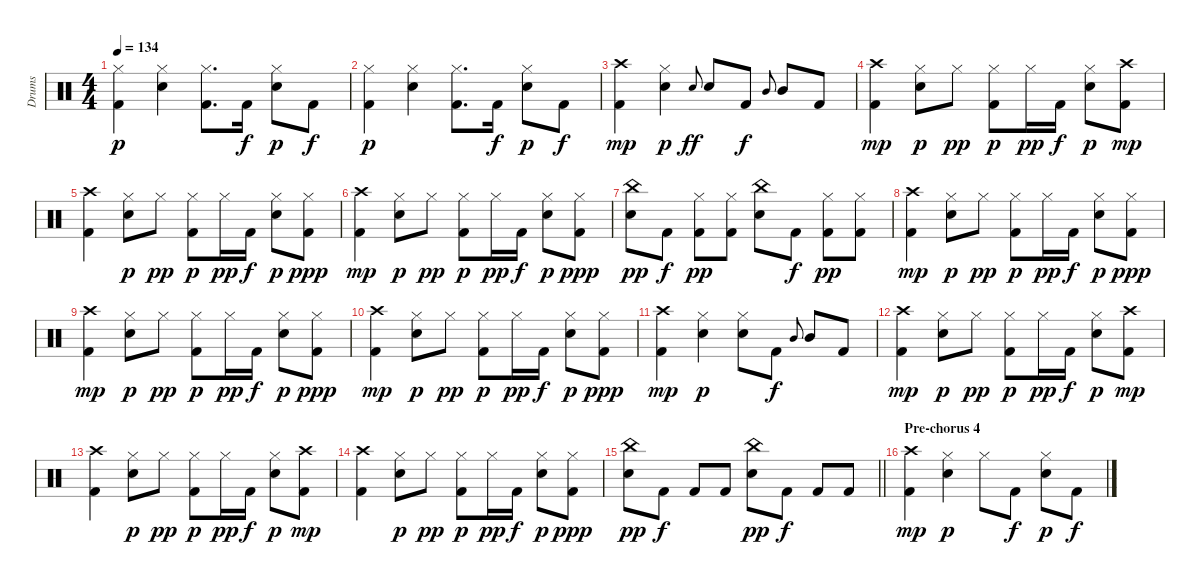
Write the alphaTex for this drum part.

\track ("Drums" "Drums") {instrument percussion}
\staff {score}
\articulation defaults
\ts (4 4)
\tempo 134
\clef neutral
\ks aminor
("Kick (hit) 2" "Hi-Hat (closed)").4{dy p} ("Electric Snare (hit)" "Hi-Hat (closed)").4 ("Kick (hit) 2" "Hi-Hat (closed)").8{d} "Kick (hit) 2".16{dy f} ("Hi-Hat (closed)" "Electric Snare (hit)").8{dy p} "Kick (hit) 2".8{dy f} |
("Kick (hit) 2" "Hi-Hat (closed)").4{dy p} ("Electric Snare (hit)" "Hi-Hat (closed)").4 ("Kick (hit) 2" "Hi-Hat (closed)").8{d} "Kick (hit) 2".16{dy f} ("Hi-Hat (closed)" "Electric Snare (hit)").8{dy p} "Kick (hit) 2".8{dy f} |
("Kick (hit) 2" "Crash high (hit)").4{dy mp} ("Electric Snare (hit)" "Hi-Hat (closed)").4{dy p} "Electric Snare (hit)".8{gr onbeat dy ff} "Electric Snare (hit)".8 "Kick (hit) 2".8{dy f} "Mid Tom (hit)".8{gr onbeat} "Mid Tom (hit)".8 "Kick (hit) 2".8 |
("Kick (hit) 2" "Crash high (hit)").4{dy mp} ("Electric Snare (hit)" "Hi-Hat (closed)").8{dy p} "Hi-Hat (closed)".8{dy pp} ("Kick (hit) 2" "Hi-Hat (closed)").8{dy p} "Hi-Hat (closed)".16{dy pp} "Kick (hit) 2".16{dy f} ("Electric Snare (hit)" "Hi-Hat (closed)").8{dy p} ("Kick (hit) 2" "Crash high (hit)").8{dy mp} |
("Kick (hit) 2" "Crash high (hit)").4 ("Electric Snare (hit)" "Hi-Hat (closed)").8{dy p} "Hi-Hat (closed)".8{dy pp} ("Kick (hit) 2" "Hi-Hat (closed)").8{dy p} "Hi-Hat (closed)".16{dy pp} "Kick (hit) 2".16{dy f} ("Electric Snare (hit)" "Hi-Hat (closed)").8{dy p} ("Kick (hit) 2" "Hi-Hat (closed)").8{dy ppp} |
("Kick (hit) 2" "Crash high (hit)").4{dy mp} ("Electric Snare (hit)" "Hi-Hat (closed)").8{dy p} "Hi-Hat (closed)".8{dy pp} ("Kick (hit) 2" "Hi-Hat (closed)").8{dy p} "Hi-Hat (closed)".16{dy pp} "Kick (hit) 2".16{dy f} ("Electric Snare (hit)" "Hi-Hat (closed)").8{dy p} ("Kick (hit) 2" "Hi-Hat (closed)").8{dy ppp} |
("Electric Snare (hit)" "China (hit)").8{dy pp} "Kick (hit) 2".8{dy f} ("Kick (hit) 2" "Hi-Hat (closed)").8{dy pp} ("Kick (hit) 2" "Hi-Hat (closed)").8 ("Electric Snare (hit)" "China (hit)").8 "Kick (hit) 2".8{dy f} ("Kick (hit) 2" "Hi-Hat (closed)").8{dy pp} ("Kick (hit) 2" "Hi-Hat (closed)").8 |
("Kick (hit) 2" "Crash high (hit)").4{dy mp} ("Electric Snare (hit)" "Hi-Hat (closed)").8{dy p} "Hi-Hat (closed)".8{dy pp} ("Kick (hit) 2" "Hi-Hat (closed)").8{dy p} "Hi-Hat (closed)".16{dy pp} "Kick (hit) 2".16{dy f} ("Electric Snare (hit)" "Hi-Hat (closed)").8{dy p} ("Kick (hit) 2" "Hi-Hat (closed)").8{dy ppp} |
("Kick (hit) 2" "Crash high (hit)").4{dy mp} ("Electric Snare (hit)" "Hi-Hat (closed)").8{dy p} "Hi-Hat (closed)".8{dy pp} ("Kick (hit) 2" "Hi-Hat (closed)").8{dy p} "Hi-Hat (closed)".16{dy pp} "Kick (hit) 2".16{dy f} ("Electric Snare (hit)" "Hi-Hat (closed)").8{dy p} ("Kick (hit) 2" "Hi-Hat (closed)").8{dy ppp} |
("Kick (hit) 2" "Crash high (hit)").4{dy mp} ("Electric Snare (hit)" "Hi-Hat (closed)").8{dy p} "Hi-Hat (closed)".8{dy pp} ("Kick (hit) 2" "Hi-Hat (closed)").8{dy p} "Hi-Hat (closed)".16{dy pp} "Kick (hit) 2".16{dy f} ("Electric Snare (hit)" "Hi-Hat (closed)").8{dy p} ("Kick (hit) 2" "Hi-Hat (closed)").8{dy ppp} |
("Kick (hit) 2" "Crash high (hit)").4{dy mp} ("Electric Snare (hit)" "Hi-Hat (closed)").4{dy p} ("Electric Snare (hit)" "Hi-Hat (closed)").8 "Kick (hit) 2".8{dy f} "Mid Tom (hit)".8{gr onbeat} "Mid Tom (hit)".8 "Kick (hit) 2".8 |
("Kick (hit) 2" "Crash high (hit)").4{dy mp} ("Electric Snare (hit)" "Hi-Hat (closed)").8{dy p} "Hi-Hat (closed)".8{dy pp} ("Kick (hit) 2" "Hi-Hat (closed)").8{dy p} "Hi-Hat (closed)".16{dy pp} "Kick (hit) 2".16{dy f} ("Electric Snare (hit)" "Hi-Hat (closed)").8{dy p} ("Kick (hit) 2" "Crash high (hit)").8{dy mp} |
("Kick (hit) 2" "Crash high (hit)").4 ("Electric Snare (hit)" "Hi-Hat (closed)").8{dy p} "Hi-Hat (closed)".8{dy pp} ("Kick (hit) 2" "Hi-Hat (closed)").8{dy p} "Hi-Hat (closed)".16{dy pp} "Kick (hit) 2".16{dy f} ("Electric Snare (hit)" "Hi-Hat (closed)").8{dy p} ("Kick (hit) 2" "Crash high (hit)").8{dy mp} |
("Kick (hit) 2" "Crash high (hit)").4 ("Electric Snare (hit)" "Hi-Hat (closed)").8{dy p} "Hi-Hat (closed)".8{dy pp} ("Kick (hit) 2" "Hi-Hat (closed)").8{dy p} "Hi-Hat (closed)".16{dy pp} "Kick (hit) 2".16{dy f} ("Electric Snare (hit)" "Hi-Hat (closed)").8{dy p} ("Kick (hit) 2" "Hi-Hat (closed)").8{dy ppp} |
\barLineRight lightlight
("Electric Snare (hit)" "China (hit)").8{dy pp} "Kick (hit) 2".8{dy f} "Kick (hit) 2".8 "Kick (hit) 2".8 ("Electric Snare (hit)" "China (hit)").8{dy pp} "Kick (hit) 2".8{dy f} "Kick (hit) 2".8 "Kick (hit) 2".8 |
\section ("" "Pre-chorus 4")
("Kick (hit) 2" "Crash high (hit)").4{dy mp} ("Electric Snare (hit)" "Hi-Hat (closed)").4{dy p} "Hi-Hat (closed)".8 "Kick (hit) 2".8{dy f} ("Electric Snare (hit)" "Hi-Hat (closed)").8{dy p} "Kick (hit) 2".8{dy f}
